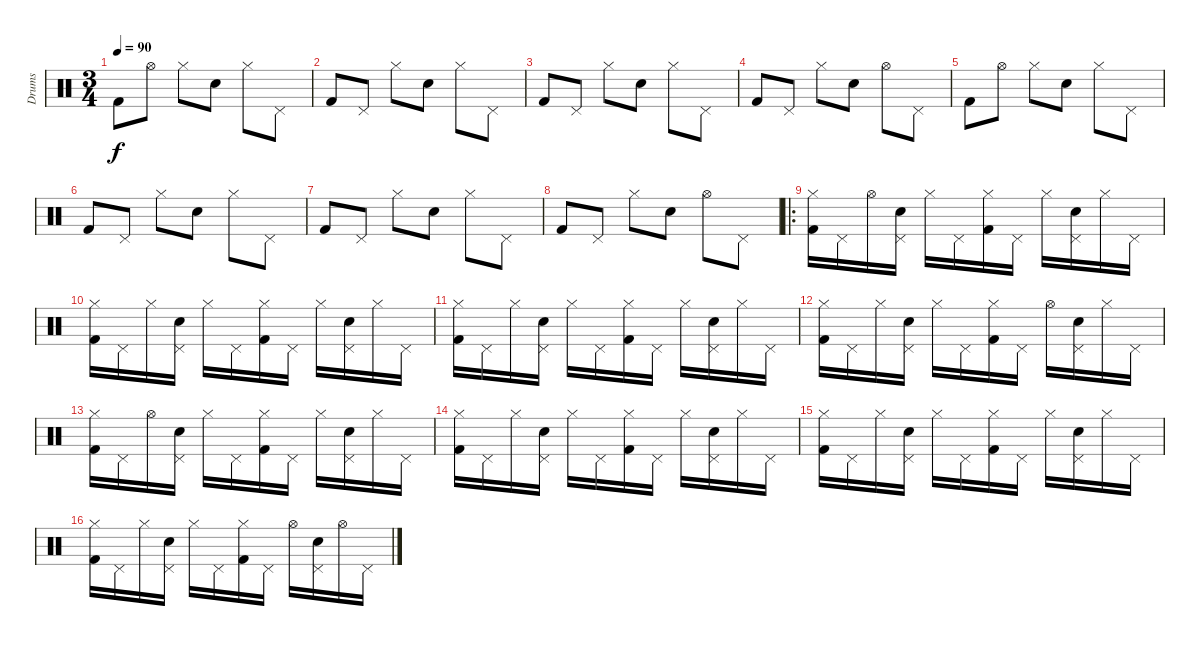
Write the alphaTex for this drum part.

\track ("Drums" "Drums") {instrument percussion}
\staff {score}
\articulation defaults
\ts (3 4)
\tempo 90
\clef neutral
\ks c "Kick (hit) 2".8{dy f} "Hi-Hat (open)".8 "Hi-Hat (closed)".8 "Electric Snare (hit)".8 "Hi-Hat (closed)".8 "Pedal Hi-Hat (hit)".8
|
"Kick (hit) 2".8 "Pedal Hi-Hat (hit)".8 "Hi-Hat (closed)".8 "Electric Snare (hit)".8 "Hi-Hat (closed)".8 "Pedal Hi-Hat (hit)".8 |
"Kick (hit) 2".8 "Pedal Hi-Hat (hit)".8 "Hi-Hat (closed)".8 "Electric Snare (hit)".8 "Hi-Hat (closed)".8 "Pedal Hi-Hat (hit)".8 |
"Kick (hit) 2".8 "Pedal Hi-Hat (hit)".8 "Hi-Hat (closed)".8 "Electric Snare (hit)".8 "Hi-Hat (open)".8 "Pedal Hi-Hat (hit)".8 |
"Kick (hit) 2".8 "Hi-Hat (open)".8 "Hi-Hat (closed)".8 "Electric Snare (hit)".8 "Hi-Hat (closed)".8 "Pedal Hi-Hat (hit)".8 |
"Kick (hit) 2".8 "Pedal Hi-Hat (hit)".8 "Hi-Hat (closed)".8 "Electric Snare (hit)".8 "Hi-Hat (closed)".8 "Pedal Hi-Hat (hit)".8 |
"Kick (hit) 2".8 "Pedal Hi-Hat (hit)".8 "Hi-Hat (closed)".8 "Electric Snare (hit)".8 "Hi-Hat (closed)".8 "Pedal Hi-Hat (hit)".8 |
"Kick (hit) 2".8 "Pedal Hi-Hat (hit)".8 "Hi-Hat (closed)".8 "Electric Snare (hit)".8 "Hi-Hat (open)".8 "Pedal Hi-Hat (hit)".8 |
\ro
("Hi-Hat (closed)" "Kick (hit) 2").16 "Pedal Hi-Hat (hit)".16 "Hi-Hat (open)".16 ("Pedal Hi-Hat (hit)" "Electric Snare (hit)").16 "Hi-Hat (closed)".16 "Pedal Hi-Hat (hit)".16 ("Hi-Hat (closed)" "Kick (hit) 2").16 "Pedal Hi-Hat (hit)".16 "Hi-Hat (closed)".16 ("Pedal Hi-Hat (hit)" "Electric Snare (hit)").16 "Hi-Hat (closed)".16 "Pedal Hi-Hat (hit)".16 |
("Hi-Hat (closed)" "Kick (hit) 2").16 "Pedal Hi-Hat (hit)".16 "Hi-Hat (closed)".16 ("Pedal Hi-Hat (hit)" "Electric Snare (hit)").16 "Hi-Hat (closed)".16 "Pedal Hi-Hat (hit)".16 ("Hi-Hat (closed)" "Kick (hit) 2").16 "Pedal Hi-Hat (hit)".16 "Hi-Hat (closed)".16 ("Pedal Hi-Hat (hit)" "Electric Snare (hit)").16 "Hi-Hat (closed)".16 "Pedal Hi-Hat (hit)".16 |
("Hi-Hat (closed)" "Kick (hit) 2").16 "Pedal Hi-Hat (hit)".16 "Hi-Hat (closed)".16 ("Pedal Hi-Hat (hit)" "Electric Snare (hit)").16 "Hi-Hat (closed)".16 "Pedal Hi-Hat (hit)".16 ("Hi-Hat (closed)" "Kick (hit) 2").16 "Pedal Hi-Hat (hit)".16 "Hi-Hat (closed)".16 ("Pedal Hi-Hat (hit)" "Electric Snare (hit)").16 "Hi-Hat (closed)".16 "Pedal Hi-Hat (hit)".16 |
("Hi-Hat (closed)" "Kick (hit) 2").16 "Pedal Hi-Hat (hit)".16 "Hi-Hat (closed)".16 ("Pedal Hi-Hat (hit)" "Electric Snare (hit)").16 "Hi-Hat (closed)".16 "Pedal Hi-Hat (hit)".16 ("Hi-Hat (closed)" "Kick (hit) 2").16 "Pedal Hi-Hat (hit)".16 "Hi-Hat (open)".16 ("Pedal Hi-Hat (hit)" "Electric Snare (hit)").16 "Hi-Hat (closed)".16 "Pedal Hi-Hat (hit)".16 |
("Hi-Hat (closed)" "Kick (hit) 2").16 "Pedal Hi-Hat (hit)".16 "Hi-Hat (open)".16 ("Pedal Hi-Hat (hit)" "Electric Snare (hit)").16 "Hi-Hat (closed)".16 "Pedal Hi-Hat (hit)".16 ("Hi-Hat (closed)" "Kick (hit) 2").16 "Pedal Hi-Hat (hit)".16 "Hi-Hat (closed)".16 ("Pedal Hi-Hat (hit)" "Electric Snare (hit)").16 "Hi-Hat (closed)".16 "Pedal Hi-Hat (hit)".16 |
("Hi-Hat (closed)" "Kick (hit) 2").16 "Pedal Hi-Hat (hit)".16 "Hi-Hat (closed)".16 ("Pedal Hi-Hat (hit)" "Electric Snare (hit)").16 "Hi-Hat (closed)".16 "Pedal Hi-Hat (hit)".16 ("Hi-Hat (closed)" "Kick (hit) 2").16 "Pedal Hi-Hat (hit)".16 "Hi-Hat (closed)".16 ("Pedal Hi-Hat (hit)" "Electric Snare (hit)").16 "Hi-Hat (closed)".16 "Pedal Hi-Hat (hit)".16 |
("Hi-Hat (closed)" "Kick (hit) 2").16 "Pedal Hi-Hat (hit)".16 "Hi-Hat (closed)".16 ("Pedal Hi-Hat (hit)" "Electric Snare (hit)").16 "Hi-Hat (closed)".16 "Pedal Hi-Hat (hit)".16 ("Hi-Hat (closed)" "Kick (hit) 2").16 "Pedal Hi-Hat (hit)".16 "Hi-Hat (closed)".16 ("Pedal Hi-Hat (hit)" "Electric Snare (hit)").16 "Hi-Hat (closed)".16 "Pedal Hi-Hat (hit)".16 |
("Hi-Hat (closed)" "Kick (hit) 2").16 "Pedal Hi-Hat (hit)".16 "Hi-Hat (closed)".16 ("Pedal Hi-Hat (hit)" "Electric Snare (hit)").16 "Hi-Hat (closed)".16 "Pedal Hi-Hat (hit)".16 ("Hi-Hat (closed)" "Kick (hit) 2").16 "Pedal Hi-Hat (hit)".16 "Hi-Hat (open)".16 ("Pedal Hi-Hat (hit)" "Electric Snare (hit)").16 "Hi-Hat (open)".16 "Pedal Hi-Hat (hit)".16
